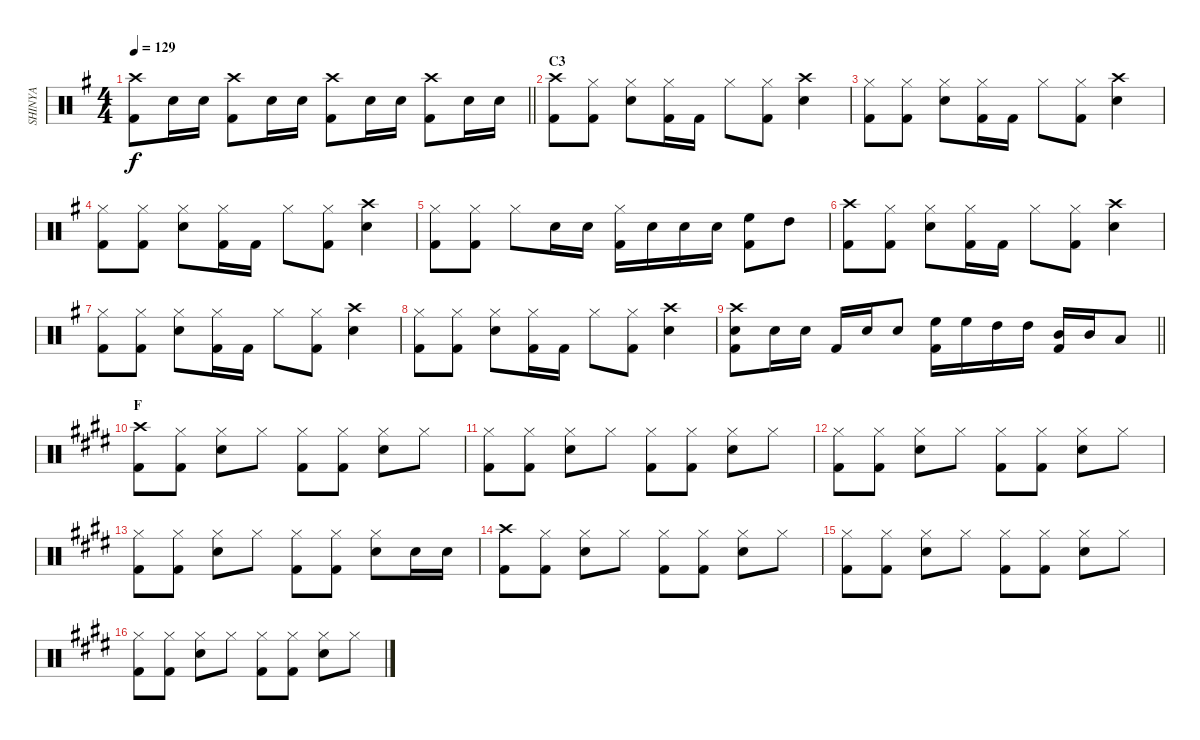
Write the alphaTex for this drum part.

\track ("SHINYA" "SHINYA") {instrument percussion}
\staff {score}
\articulation defaults
\ts (4 4)
\tempo 129
\clef neutral
\barLineRight lightlight
\ks g
("Crash high (hit)" "Kick (hit) 2").8{dy f} "Snare (hit) 2".16 "Snare (hit) 2".16 ("Crash high (hit)" "Kick (hit) 2").8 "Snare (hit) 2".16 "Snare (hit) 2".16 ("Crash high (hit)" "Kick (hit) 2").8 "Snare (hit) 2".16 "Snare (hit) 2".16 ("Crash high (hit)" "Kick (hit) 2").8 "Snare (hit) 2".16 "Snare (hit) 2".16 |
\section ("" "C3")
("Crash high (hit)" "Kick (hit) 2").8 ("Hi-Hat (closed)" "Kick (hit) 2").8 ("Hi-Hat (closed)" "Snare (hit) 2").8 ("Hi-Hat (closed)" "Kick (hit) 2").16 "Kick (hit) 2".16 "Hi-Hat (closed)".8 ("Hi-Hat (closed)" "Kick (hit) 2").8 ("Crash high (hit)" "Snare (hit) 2").4 |
("Hi-Hat (closed)" "Kick (hit) 2").8 ("Hi-Hat (closed)" "Kick (hit) 2").8 ("Hi-Hat (closed)" "Snare (hit) 2").8 ("Hi-Hat (closed)" "Kick (hit) 2").16 "Kick (hit) 2".16 "Hi-Hat (closed)".8 ("Hi-Hat (closed)" "Kick (hit) 2").8 ("Crash high (hit)" "Snare (hit) 2").4 |
("Hi-Hat (closed)" "Kick (hit) 2").8 ("Hi-Hat (closed)" "Kick (hit) 2").8 ("Hi-Hat (closed)" "Snare (hit) 2").8 ("Hi-Hat (closed)" "Kick (hit) 2").16 "Kick (hit) 2".16 "Hi-Hat (closed)".8 ("Hi-Hat (closed)" "Kick (hit) 2").8 ("Crash high (hit)" "Snare (hit) 2").4 |
("Hi-Hat (closed)" "Kick (hit) 2").8 ("Hi-Hat (closed)" "Kick (hit) 2").8 "Hi-Hat (closed)".8 "Snare (hit) 2".16 "Snare (hit) 2".16 ("Hi-Hat (closed)" "Kick (hit) 2").16 "Snare (hit) 2".16 "Snare (hit) 2".16 "Snare (hit) 2".16 ("High Floor Tom (hit)" "Kick (hit) 2").8 "High Tom (hit)".8 |
("Crash high (hit)" "Kick (hit) 2").8 ("Hi-Hat (closed)" "Kick (hit) 2").8 ("Hi-Hat (closed)" "Snare (hit) 2").8 ("Hi-Hat (closed)" "Kick (hit) 2").16 "Kick (hit) 2".16 "Hi-Hat (closed)".8 ("Hi-Hat (closed)" "Kick (hit) 2").8 ("Crash high (hit)" "Snare (hit) 2").4 |
("Hi-Hat (closed)" "Kick (hit) 2").8 ("Hi-Hat (closed)" "Kick (hit) 2").8 ("Hi-Hat (closed)" "Snare (hit) 2").8 ("Hi-Hat (closed)" "Kick (hit) 2").16 "Kick (hit) 2".16 "Hi-Hat (closed)".8 ("Hi-Hat (closed)" "Kick (hit) 2").8 ("Crash high (hit)" "Snare (hit) 2").4 |
("Hi-Hat (closed)" "Kick (hit) 2").8 ("Hi-Hat (closed)" "Kick (hit) 2").8 ("Hi-Hat (closed)" "Snare (hit) 2").8 ("Hi-Hat (closed)" "Kick (hit) 2").16 "Kick (hit) 2".16 "Hi-Hat (closed)".8 ("Hi-Hat (closed)" "Kick (hit) 2").8 ("Crash high (hit)" "Snare (hit) 2").4 |
\barLineRight lightlight
("Crash high (hit)" "Snare (hit) 2" "Kick (hit) 2").8 "Snare (hit) 2".16 "Snare (hit) 2".16 "Kick (hit) 2".16 "Snare (hit) 2".16 "Snare (hit) 2".8 ("High Floor Tom (hit)" "Kick (hit) 2").16 "High Floor Tom (hit)".16 "High Tom (hit)".16 "High Tom (hit)".16 ("Mid Tom (hit)" "Kick (hit) 2").16 "Mid Tom (hit)".16 "Low Tom (hit)".8 |
\section ("" "F")
\ks e
("Crash high (hit)" "Kick (hit) 2").8 ("Hi-Hat (closed)" "Kick (hit) 2").8 ("Hi-Hat (closed)" "Snare (hit) 2").8 "Hi-Hat (closed)".8 ("Hi-Hat (closed)" "Kick (hit) 2").8 ("Hi-Hat (closed)" "Kick (hit) 2").8 ("Hi-Hat (closed)" "Snare (hit) 2").8 "Hi-Hat (closed)".8 |
("Hi-Hat (closed)" "Kick (hit) 2").8 ("Hi-Hat (closed)" "Kick (hit) 2").8 ("Hi-Hat (closed)" "Snare (hit) 2").8 "Hi-Hat (closed)".8 ("Hi-Hat (closed)" "Kick (hit) 2").8 ("Hi-Hat (closed)" "Kick (hit) 2").8 ("Hi-Hat (closed)" "Snare (hit) 2").8 "Hi-Hat (closed)".8 |
("Hi-Hat (closed)" "Kick (hit) 2").8 ("Hi-Hat (closed)" "Kick (hit) 2").8 ("Hi-Hat (closed)" "Snare (hit) 2").8 "Hi-Hat (closed)".8 ("Hi-Hat (closed)" "Kick (hit) 2").8 ("Hi-Hat (closed)" "Kick (hit) 2").8 ("Hi-Hat (closed)" "Snare (hit) 2").8 "Hi-Hat (closed)".8 |
("Hi-Hat (closed)" "Kick (hit) 2").8 ("Hi-Hat (closed)" "Kick (hit) 2").8 ("Hi-Hat (closed)" "Snare (hit) 2").8 "Hi-Hat (closed)".8 ("Hi-Hat (closed)" "Kick (hit) 2").8 ("Hi-Hat (closed)" "Kick (hit) 2").8 ("Hi-Hat (closed)" "Snare (hit) 2").8 "Snare (hit) 2".16 "Snare (hit) 2".16 |
("Crash high (hit)" "Kick (hit) 2").8 ("Hi-Hat (closed)" "Kick (hit) 2").8 ("Hi-Hat (closed)" "Snare (hit) 2").8 "Hi-Hat (closed)".8 ("Hi-Hat (closed)" "Kick (hit) 2").8 ("Hi-Hat (closed)" "Kick (hit) 2").8 ("Hi-Hat (closed)" "Snare (hit) 2").8 "Hi-Hat (closed)".8 |
("Hi-Hat (closed)" "Kick (hit) 2").8 ("Hi-Hat (closed)" "Kick (hit) 2").8 ("Hi-Hat (closed)" "Snare (hit) 2").8 "Hi-Hat (closed)".8 ("Hi-Hat (closed)" "Kick (hit) 2").8 ("Hi-Hat (closed)" "Kick (hit) 2").8 ("Hi-Hat (closed)" "Snare (hit) 2").8 "Hi-Hat (closed)".8 |
("Hi-Hat (closed)" "Kick (hit) 2").8 ("Hi-Hat (closed)" "Kick (hit) 2").8 ("Hi-Hat (closed)" "Snare (hit) 2").8 "Hi-Hat (closed)".8 ("Hi-Hat (closed)" "Kick (hit) 2").8 ("Hi-Hat (closed)" "Kick (hit) 2").8 ("Hi-Hat (closed)" "Snare (hit) 2").8 "Hi-Hat (closed)".8
